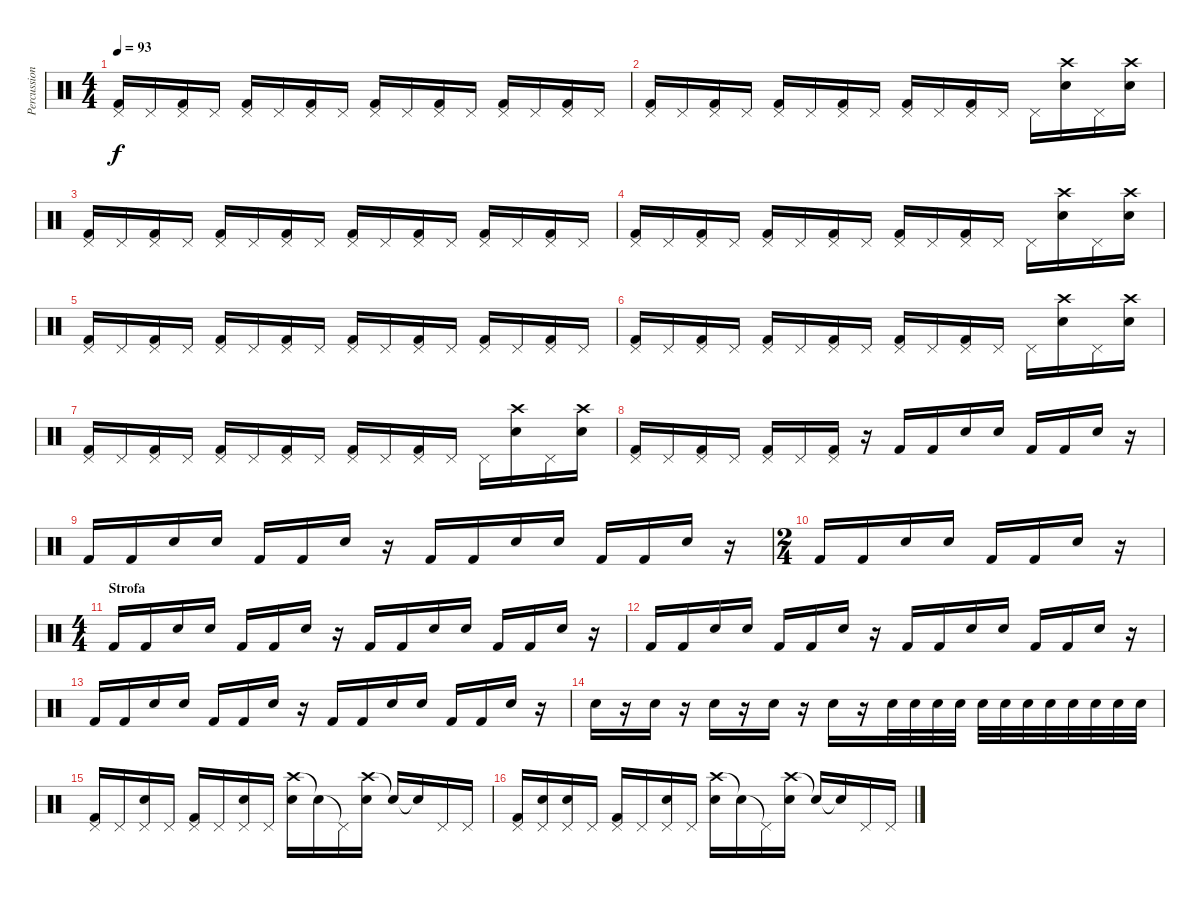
\track ("Percussioni" "Percussion") {instrument percussion}
\staff {score}
\articulation defaults
\ts (4 4)
\tempo 93
\clef neutral
\ks c
("Pedal Hi-Hat (hit)" "Kick (hit) 2").16{dy f} "Pedal Hi-Hat (hit)".16 ("Pedal Hi-Hat (hit)" "Kick (hit) 2").16 "Pedal Hi-Hat (hit)".16 ("Pedal Hi-Hat (hit)" "Kick (hit) 2").16 "Pedal Hi-Hat (hit)".16 ("Pedal Hi-Hat (hit)" "Kick (hit) 2").16 "Pedal Hi-Hat (hit)".16 ("Pedal Hi-Hat (hit)" "Kick (hit) 2").16 "Pedal Hi-Hat (hit)".16 ("Pedal Hi-Hat (hit)" "Kick (hit) 2").16 "Pedal Hi-Hat (hit)".16 ("Pedal Hi-Hat (hit)" "Kick (hit) 2").16 "Pedal Hi-Hat (hit)".16 ("Pedal Hi-Hat (hit)" "Kick (hit) 2").16 "Pedal Hi-Hat (hit)".16 |
("Pedal Hi-Hat (hit)" "Kick (hit) 2").16 "Pedal Hi-Hat (hit)".16 ("Pedal Hi-Hat (hit)" "Kick (hit) 2").16 "Pedal Hi-Hat (hit)".16 ("Pedal Hi-Hat (hit)" "Kick (hit) 2").16 "Pedal Hi-Hat (hit)".16 ("Pedal Hi-Hat (hit)" "Kick (hit) 2").16 "Pedal Hi-Hat (hit)".16 ("Pedal Hi-Hat (hit)" "Kick (hit) 2").16 "Pedal Hi-Hat (hit)".16 ("Pedal Hi-Hat (hit)" "Kick (hit) 2").16 "Pedal Hi-Hat (hit)".16 "Pedal Hi-Hat (hit)".16 ("Crash high (hit)" "Electric Snare (hit)").16 "Pedal Hi-Hat (hit)".16 ("Crash high (hit)" "Electric Snare (hit)").16 |
("Pedal Hi-Hat (hit)" "Kick (hit) 2").16 "Pedal Hi-Hat (hit)".16 ("Pedal Hi-Hat (hit)" "Kick (hit) 2").16 "Pedal Hi-Hat (hit)".16 ("Pedal Hi-Hat (hit)" "Kick (hit) 2").16 "Pedal Hi-Hat (hit)".16 ("Pedal Hi-Hat (hit)" "Kick (hit) 2").16 "Pedal Hi-Hat (hit)".16 ("Pedal Hi-Hat (hit)" "Kick (hit) 2").16 "Pedal Hi-Hat (hit)".16 ("Pedal Hi-Hat (hit)" "Kick (hit) 2").16 "Pedal Hi-Hat (hit)".16 ("Pedal Hi-Hat (hit)" "Kick (hit) 2").16 "Pedal Hi-Hat (hit)".16 ("Pedal Hi-Hat (hit)" "Kick (hit) 2").16 "Pedal Hi-Hat (hit)".16 |
("Pedal Hi-Hat (hit)" "Kick (hit) 2").16 "Pedal Hi-Hat (hit)".16 ("Pedal Hi-Hat (hit)" "Kick (hit) 2").16 "Pedal Hi-Hat (hit)".16 ("Pedal Hi-Hat (hit)" "Kick (hit) 2").16 "Pedal Hi-Hat (hit)".16 ("Pedal Hi-Hat (hit)" "Kick (hit) 2").16 "Pedal Hi-Hat (hit)".16 ("Pedal Hi-Hat (hit)" "Kick (hit) 2").16 "Pedal Hi-Hat (hit)".16 ("Pedal Hi-Hat (hit)" "Kick (hit) 2").16 "Pedal Hi-Hat (hit)".16 "Pedal Hi-Hat (hit)".16 ("Crash high (hit)" "Electric Snare (hit)").16 "Pedal Hi-Hat (hit)".16 ("Crash high (hit)" "Electric Snare (hit)").16 |
("Pedal Hi-Hat (hit)" "Kick (hit) 2").16 "Pedal Hi-Hat (hit)".16 ("Pedal Hi-Hat (hit)" "Kick (hit) 2").16 "Pedal Hi-Hat (hit)".16 ("Pedal Hi-Hat (hit)" "Kick (hit) 2").16 "Pedal Hi-Hat (hit)".16 ("Pedal Hi-Hat (hit)" "Kick (hit) 2").16 "Pedal Hi-Hat (hit)".16 ("Pedal Hi-Hat (hit)" "Kick (hit) 2").16 "Pedal Hi-Hat (hit)".16 ("Pedal Hi-Hat (hit)" "Kick (hit) 2").16 "Pedal Hi-Hat (hit)".16 ("Pedal Hi-Hat (hit)" "Kick (hit) 2").16 "Pedal Hi-Hat (hit)".16 ("Pedal Hi-Hat (hit)" "Kick (hit) 2").16 "Pedal Hi-Hat (hit)".16 |
("Pedal Hi-Hat (hit)" "Kick (hit) 2").16 "Pedal Hi-Hat (hit)".16 ("Pedal Hi-Hat (hit)" "Kick (hit) 2").16 "Pedal Hi-Hat (hit)".16 ("Pedal Hi-Hat (hit)" "Kick (hit) 2").16 "Pedal Hi-Hat (hit)".16 ("Pedal Hi-Hat (hit)" "Kick (hit) 2").16 "Pedal Hi-Hat (hit)".16 ("Pedal Hi-Hat (hit)" "Kick (hit) 2").16 "Pedal Hi-Hat (hit)".16 ("Pedal Hi-Hat (hit)" "Kick (hit) 2").16 "Pedal Hi-Hat (hit)".16 "Pedal Hi-Hat (hit)".16 ("Crash high (hit)" "Electric Snare (hit)").16 "Pedal Hi-Hat (hit)".16 ("Crash high (hit)" "Electric Snare (hit)").16 |
("Pedal Hi-Hat (hit)" "Kick (hit) 2").16 "Pedal Hi-Hat (hit)".16 ("Pedal Hi-Hat (hit)" "Kick (hit) 2").16 "Pedal Hi-Hat (hit)".16 ("Pedal Hi-Hat (hit)" "Kick (hit) 2").16 "Pedal Hi-Hat (hit)".16 ("Pedal Hi-Hat (hit)" "Kick (hit) 2").16 "Pedal Hi-Hat (hit)".16 ("Pedal Hi-Hat (hit)" "Kick (hit) 2").16 "Pedal Hi-Hat (hit)".16 ("Pedal Hi-Hat (hit)" "Kick (hit) 2").16 "Pedal Hi-Hat (hit)".16 "Pedal Hi-Hat (hit)".16 ("Crash high (hit)" "Electric Snare (hit)").16 "Pedal Hi-Hat (hit)".16 ("Crash high (hit)" "Electric Snare (hit)").16 |
("Pedal Hi-Hat (hit)" "Kick (hit) 2").16 "Pedal Hi-Hat (hit)".16 ("Pedal Hi-Hat (hit)" "Kick (hit) 2").16 "Pedal Hi-Hat (hit)".16 ("Pedal Hi-Hat (hit)" "Kick (hit) 2").16 "Pedal Hi-Hat (hit)".16 ("Pedal Hi-Hat (hit)" "Kick (hit) 2").16 r.16 "Kick (hit) 2".16 "Kick (hit) 2".16 "Electric Snare (hit)".16 "Electric Snare (hit)".16 "Kick (hit) 2".16 "Kick (hit) 2".16 "Electric Snare (hit)".16 r.16 |
"Kick (hit) 2".16 "Kick (hit) 2".16 "Electric Snare (hit)".16 "Electric Snare (hit)".16 "Kick (hit) 2".16 "Kick (hit) 2".16 "Electric Snare (hit)".16 r.16 "Kick (hit) 2".16 "Kick (hit) 2".16 "Electric Snare (hit)".16 "Electric Snare (hit)".16 "Kick (hit) 2".16 "Kick (hit) 2".16 "Electric Snare (hit)".16 r.16 |
\ts (2 4)
"Kick (hit) 2".16 "Kick (hit) 2".16 "Electric Snare (hit)".16 "Electric Snare (hit)".16 "Kick (hit) 2".16 "Kick (hit) 2".16 "Electric Snare (hit)".16 r.16 |
\ts (4 4)
\section ("" "Strofa")
"Kick (hit) 2".16 "Kick (hit) 2".16 "Electric Snare (hit)".16 "Electric Snare (hit)".16 "Kick (hit) 2".16 "Kick (hit) 2".16 "Electric Snare (hit)".16 r.16 "Kick (hit) 2".16 "Kick (hit) 2".16 "Electric Snare (hit)".16 "Electric Snare (hit)".16 "Kick (hit) 2".16 "Kick (hit) 2".16 "Electric Snare (hit)".16 r.16 |
"Kick (hit) 2".16 "Kick (hit) 2".16 "Electric Snare (hit)".16 "Electric Snare (hit)".16 "Kick (hit) 2".16 "Kick (hit) 2".16 "Electric Snare (hit)".16 r.16 "Kick (hit) 2".16 "Kick (hit) 2".16 "Electric Snare (hit)".16 "Electric Snare (hit)".16 "Kick (hit) 2".16 "Kick (hit) 2".16 "Electric Snare (hit)".16 r.16 |
"Kick (hit) 2".16 "Kick (hit) 2".16 "Electric Snare (hit)".16 "Electric Snare (hit)".16 "Kick (hit) 2".16 "Kick (hit) 2".16 "Electric Snare (hit)".16 r.16 "Kick (hit) 2".16 "Kick (hit) 2".16 "Electric Snare (hit)".16 "Electric Snare (hit)".16 "Kick (hit) 2".16 "Kick (hit) 2".16 "Electric Snare (hit)".16 r.16 |
"Electric Snare (hit)".16 r.16 "Electric Snare (hit)".16 r.16 "Electric Snare (hit)".16 r.16 "Electric Snare (hit)".16 r.16 "Electric Snare (hit)".16 r.16 "Electric Snare (hit)".32 "Electric Snare (hit)".32 "Electric Snare (hit)".32 "Electric Snare (hit)".32 "Electric Snare (hit)".32 "Electric Snare (hit)".32 "Electric Snare (hit)".32 "Electric Snare (hit)".32 "Electric Snare (hit)".32 "Electric Snare (hit)".32 "Electric Snare (hit)".32 "Electric Snare (hit)".32 |
("Pedal Hi-Hat (hit)" "Kick (hit) 2").16 "Pedal Hi-Hat (hit)".16 ("Pedal Hi-Hat (hit)" "Electric Snare (hit)").16 "Pedal Hi-Hat (hit)".16 ("Pedal Hi-Hat (hit)" "Kick (hit) 2").16 "Pedal Hi-Hat (hit)".16 ("Pedal Hi-Hat (hit)" "Electric Snare (hit)").16 "Pedal Hi-Hat (hit)".16 ("Crash high (hit)" "Electric Snare (hit)").16 "Snare (hit)"{t}.16 "Pedal Hi-Hat (hit)"{t}.16 ("Crash high (hit)" "Electric Snare (hit)").16 "Electric Snare (hit)"{t}.16 "Snare (hit)"{t}.16 "Pedal Hi-Hat (hit)".16 "Pedal Hi-Hat (hit)".16 |
("Pedal Hi-Hat (hit)" "Kick (hit) 2").16 ("Pedal Hi-Hat (hit)" "Snare (hit)").16 ("Pedal Hi-Hat (hit)" "Electric Snare (hit)").16 "Pedal Hi-Hat (hit)".16 ("Pedal Hi-Hat (hit)" "Kick (hit) 2").16 "Pedal Hi-Hat (hit)".16 ("Pedal Hi-Hat (hit)" "Electric Snare (hit)").16 "Pedal Hi-Hat (hit)".16 ("Crash high (hit)" "Electric Snare (hit)").16 "Snare (hit)"{t}.16 "Pedal Hi-Hat (hit)"{t}.16 ("Crash high (hit)" "Electric Snare (hit)").16 "Electric Snare (hit)"{t}.16 "Snare (hit)"{t}.16 "Pedal Hi-Hat (hit)".16 "Pedal Hi-Hat (hit)".16
